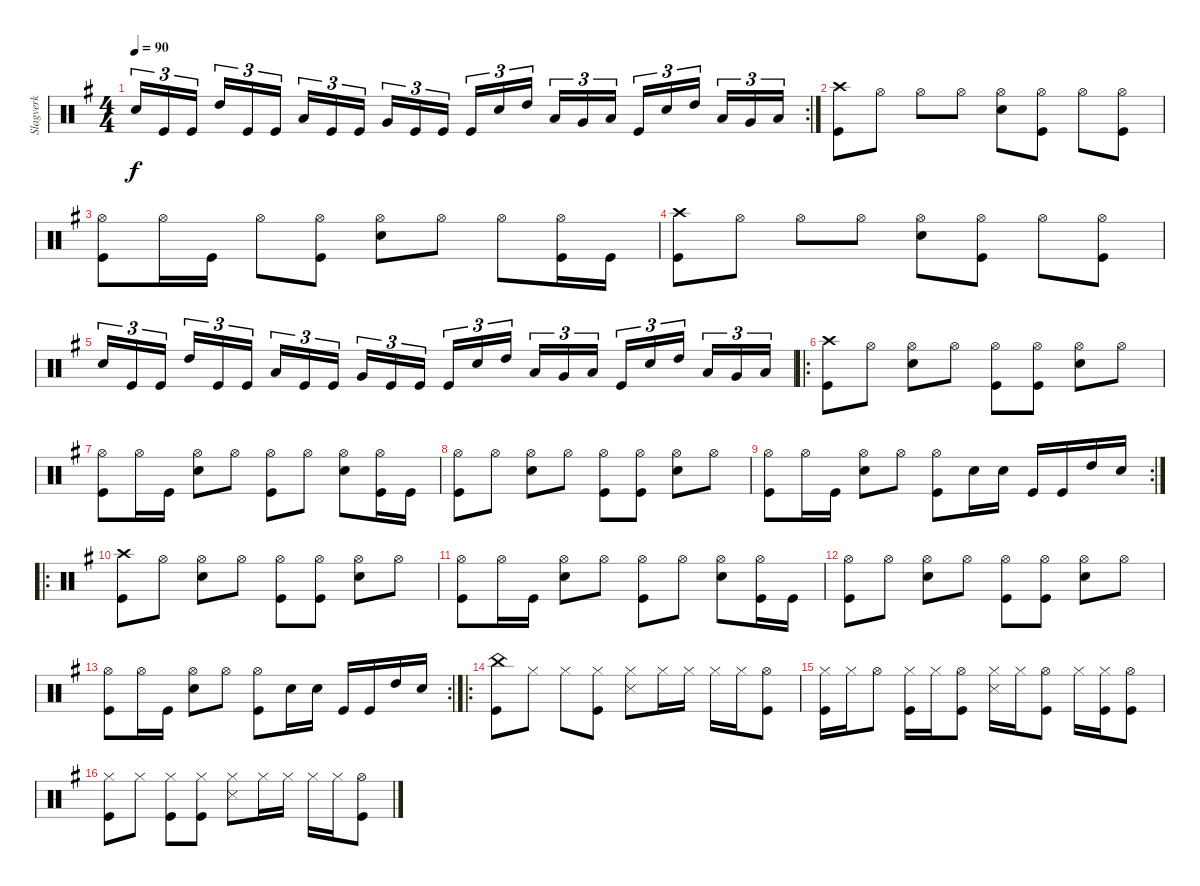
\track ("Slagverk" "Slagverk") {instrument percussion}
\staff {score}
\articulation defaults
\rc 2
\ts (4 4)
\tempo 90
\clef neutral
\ks g "Electric Snare (hit)".16{tu (3 2) dy f} "Kick (hit)".16{tu (3 2)} "Kick (hit)".16{tu (3 2)} "High Tom (hit)".16{tu (3 2)} "Kick (hit)".16{tu (3 2)} "Kick (hit)".16{tu (3 2)} "Low Tom (hit)".16{tu (3 2)} "Kick (hit)".16{tu (3 2)} "Kick (hit)".16{tu (3 2)} "Very Low Tom (hit)".16{tu (3 2)} "Kick (hit)".16{tu (3 2)} "Kick (hit)".16{tu (3 2)} "Kick (hit)".16{tu (3 2)} "Electric Snare (hit)".16{tu (3 2)} "High Tom (hit)".16{tu (3 2)} "Low Tom (hit)".16{tu (3 2)} "Very Low Tom (hit)".16{tu (3 2)} "Low Floor Tom (hit)".16{tu (3 2)} "Kick (hit)".16{tu (3 2)} "Electric Snare (hit)".16{tu (3 2)} "High Tom (hit)".16{tu (3 2)} "Low Tom (hit)".16{tu (3 2)} "Very Low Tom (hit)".16{tu (3 2)} "Low Floor Tom (hit)".16{tu (3 2)}
|
("Crash high (hit)" "Kick (hit)").8 "Hi-Hat (open)".8 "Hi-Hat (open)".8 "Hi-Hat (open)".8 ("Hi-Hat (open)" "Electric Snare (hit)").8 ("Hi-Hat (open)" "Kick (hit)").8 "Hi-Hat (open)".8 ("Hi-Hat (open)" "Kick (hit)").8 |
("Hi-Hat (open)" "Kick (hit)").8 "Hi-Hat (open)".16 "Kick (hit)".16 "Hi-Hat (open)".8 ("Hi-Hat (open)" "Kick (hit)").8 ("Hi-Hat (open)" "Electric Snare (hit)").8 "Hi-Hat (open)".8 "Hi-Hat (open)".8 ("Hi-Hat (open)" "Kick (hit)").16 "Kick (hit)".16 |
("Crash high (hit)" "Kick (hit)").8 "Hi-Hat (open)".8 "Hi-Hat (open)".8 "Hi-Hat (open)".8 ("Hi-Hat (open)" "Electric Snare (hit)").8 ("Hi-Hat (open)" "Kick (hit)").8 "Hi-Hat (open)".8 ("Hi-Hat (open)" "Kick (hit)").8 |
"Electric Snare (hit)".16{tu (3 2)} "Kick (hit)".16{tu (3 2)} "Kick (hit)".16{tu (3 2)} "High Tom (hit)".16{tu (3 2)} "Kick (hit)".16{tu (3 2)} "Kick (hit)".16{tu (3 2)} "Low Tom (hit)".16{tu (3 2)} "Kick (hit)".16{tu (3 2)} "Kick (hit)".16{tu (3 2)} "Very Low Tom (hit)".16{tu (3 2)} "Kick (hit)".16{tu (3 2)} "Kick (hit)".16{tu (3 2)} "Kick (hit)".16{tu (3 2)} "Electric Snare (hit)".16{tu (3 2)} "High Tom (hit)".16{tu (3 2)} "Low Tom (hit)".16{tu (3 2)} "Very Low Tom (hit)".16{tu (3 2)} "Low Floor Tom (hit)".16{tu (3 2)} "Kick (hit)".16{tu (3 2)} "Electric Snare (hit)".16{tu (3 2)} "High Tom (hit)".16{tu (3 2)} "Low Tom (hit)".16{tu (3 2)} "Very Low Tom (hit)".16{tu (3 2)} "Low Floor Tom (hit)".16{tu (3 2)} |
\ro
("Crash high (hit)" "Kick (hit)").8 "Hi-Hat (open)".8 ("Hi-Hat (open)" "Electric Snare (hit)").8 "Hi-Hat (open)".8 ("Hi-Hat (open)" "Kick (hit)").8 ("Hi-Hat (open)" "Kick (hit)").8 ("Hi-Hat (open)" "Electric Snare (hit)").8 "Hi-Hat (open)".8 |
("Hi-Hat (open)" "Kick (hit)").8 "Hi-Hat (open)".16 "Kick (hit)".16 ("Hi-Hat (open)" "Electric Snare (hit)").8 "Hi-Hat (open)".8 ("Hi-Hat (open)" "Kick (hit)").8 "Hi-Hat (open)".8 ("Hi-Hat (open)" "Electric Snare (hit)").8 ("Hi-Hat (open)" "Kick (hit)").16 "Kick (hit)".16 |
("Hi-Hat (open)" "Kick (hit)").8 "Hi-Hat (open)".8 ("Hi-Hat (open)" "Electric Snare (hit)").8 "Hi-Hat (open)".8 ("Hi-Hat (open)" "Kick (hit)").8 ("Hi-Hat (open)" "Kick (hit)").8 ("Hi-Hat (open)" "Electric Snare (hit)").8 "Hi-Hat (open)".8 |
\rc 2
("Hi-Hat (open)" "Kick (hit)").8 "Hi-Hat (open)".16 "Kick (hit)".16 ("Hi-Hat (open)" "Electric Snare (hit)").8 "Hi-Hat (open)".8 ("Hi-Hat (open)" "Kick (hit)").8 "Electric Snare (hit)".16 "Electric Snare (hit)".16 "Kick (hit)".16 "Kick (hit)".16 "High Tom (hit)".16 "Electric Snare (hit)".16 |
\ro
("Crash high (hit)" "Kick (hit)").8 "Hi-Hat (open)".8 ("Hi-Hat (open)" "Electric Snare (hit)").8 "Hi-Hat (open)".8 ("Hi-Hat (open)" "Kick (hit)").8 ("Hi-Hat (open)" "Kick (hit)").8 ("Hi-Hat (open)" "Electric Snare (hit)").8 "Hi-Hat (open)".8 |
("Hi-Hat (open)" "Kick (hit)").8 "Hi-Hat (open)".16 "Kick (hit)".16 ("Hi-Hat (open)" "Electric Snare (hit)").8 "Hi-Hat (open)".8 ("Hi-Hat (open)" "Kick (hit)").8 "Hi-Hat (open)".8 ("Hi-Hat (open)" "Electric Snare (hit)").8 ("Hi-Hat (open)" "Kick (hit)").16 "Kick (hit)".16 |
("Hi-Hat (open)" "Kick (hit)").8 "Hi-Hat (open)".8 ("Hi-Hat (open)" "Electric Snare (hit)").8 "Hi-Hat (open)".8 ("Hi-Hat (open)" "Kick (hit)").8 ("Hi-Hat (open)" "Kick (hit)").8 ("Hi-Hat (open)" "Electric Snare (hit)").8 "Hi-Hat (open)".8 |
\rc 2
("Hi-Hat (open)" "Kick (hit)").8 "Hi-Hat (open)".16 "Kick (hit)".16 ("Hi-Hat (open)" "Electric Snare (hit)").8 "Hi-Hat (open)".8 ("Hi-Hat (open)" "Kick (hit)").8 "Electric Snare (hit)".16 "Electric Snare (hit)".16 "Kick (hit)".16 "Kick (hit)".16 "High Tom (hit)".16 "Electric Snare (hit)".16 |
\ro
("China (hit)" "Kick (hit)").8 "Hi-Hat (closed)".8 "Hi-Hat (closed)".8 ("Hi-Hat (closed)" "Kick (hit)").8 ("Hi-Hat (closed)" "Snare (side stick) 3").8 "Hi-Hat (closed)".16 "Hi-Hat (closed)".16 "Hi-Hat (closed)".16 "Hi-Hat (closed)".16 ("Hi-Hat (open)" "Kick (hit)").8 |
("Hi-Hat (closed)" "Kick (hit)").16 "Hi-Hat (closed)".16 "Hi-Hat (open)".8 ("Hi-Hat (closed)" "Kick (hit)").16 "Hi-Hat (closed)".16 ("Hi-Hat (open)" "Kick (hit)").8 ("Hi-Hat (closed)" "Snare (side stick) 3").16 "Hi-Hat (closed)".16 ("Hi-Hat (open)" "Kick (hit)").8 "Hi-Hat (closed)".16 ("Hi-Hat (closed)" "Kick (hit)").16 ("Hi-Hat (open)" "Kick (hit)").8 |
("Hi-Hat (closed)" "Kick (hit)").8 "Hi-Hat (closed)".8 ("Hi-Hat (closed)" "Kick (hit)").8 ("Hi-Hat (closed)" "Kick (hit)").8 ("Hi-Hat (closed)" "Snare (side stick) 3").8 "Hi-Hat (closed)".16 "Hi-Hat (closed)".16 "Hi-Hat (closed)".16 "Hi-Hat (closed)".16 ("Hi-Hat (open)" "Kick (hit)").8
